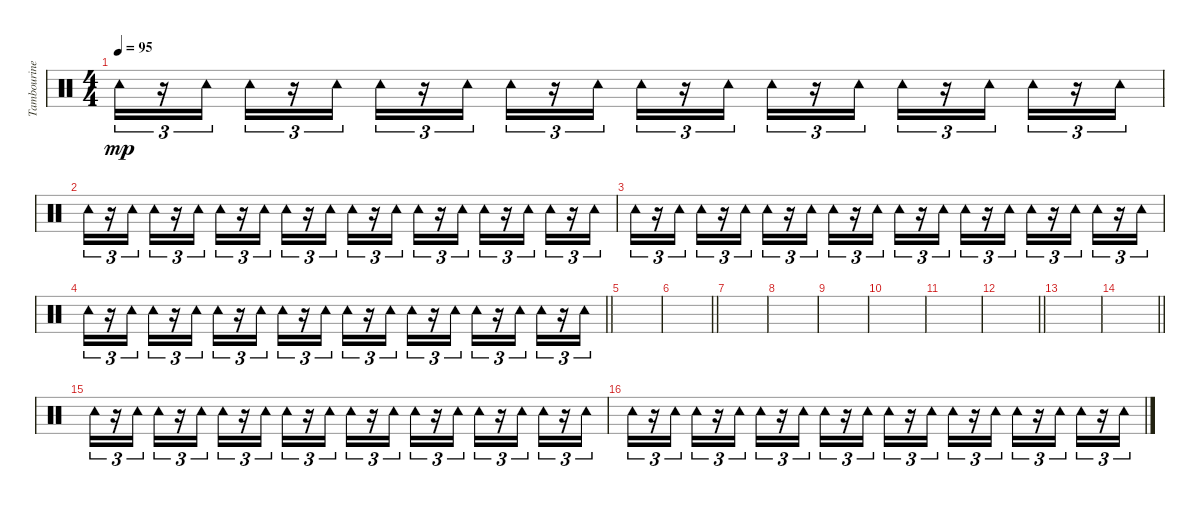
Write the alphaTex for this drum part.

\track ("Tambourine" "Tambourine") {instrument percussion}
\staff {score}
\articulation defaults
\ts (4 4)
\tempo 95
\clef neutral
\ks c "Tambourine (hit)".16{tu (3 2) dy mp}
r.16{tu (3 2)} "Tambourine (hit)".16{tu (3 2)} "Tambourine (hit)".16{tu (3 2)} r.16{tu (3 2)} "Tambourine (hit)".16{tu (3 2)} "Tambourine (hit)".16{tu (3 2)} r.16{tu (3 2)} "Tambourine (hit)".16{tu (3 2)} "Tambourine (hit)".16{tu (3 2)} r.16{tu (3 2)} "Tambourine (hit)".16{tu (3 2)} "Tambourine (hit)".16{tu (3 2)} r.16{tu (3 2)} "Tambourine (hit)".16{tu (3 2)} "Tambourine (hit)".16{tu (3 2)} r.16{tu (3 2)} "Tambourine (hit)".16{tu (3 2)} "Tambourine (hit)".16{tu (3 2)} r.16{tu (3 2)} "Tambourine (hit)".16{tu (3 2)} "Tambourine (hit)".16{tu (3 2)} r.16{tu (3 2)} "Tambourine (hit)".16{tu (3 2)} |
"Tambourine (hit)".16{tu (3 2)} r.16{tu (3 2)} "Tambourine (hit)".16{tu (3 2)} "Tambourine (hit)".16{tu (3 2)} r.16{tu (3 2)} "Tambourine (hit)".16{tu (3 2)} "Tambourine (hit)".16{tu (3 2)} r.16{tu (3 2)} "Tambourine (hit)".16{tu (3 2)} "Tambourine (hit)".16{tu (3 2)} r.16{tu (3 2)} "Tambourine (hit)".16{tu (3 2)} "Tambourine (hit)".16{tu (3 2)} r.16{tu (3 2)} "Tambourine (hit)".16{tu (3 2)} "Tambourine (hit)".16{tu (3 2)} r.16{tu (3 2)} "Tambourine (hit)".16{tu (3 2)} "Tambourine (hit)".16{tu (3 2)} r.16{tu (3 2)} "Tambourine (hit)".16{tu (3 2)} "Tambourine (hit)".16{tu (3 2)} r.16{tu (3 2)} "Tambourine (hit)".16{tu (3 2)} |
"Tambourine (hit)".16{tu (3 2)} r.16{tu (3 2)} "Tambourine (hit)".16{tu (3 2)} "Tambourine (hit)".16{tu (3 2)} r.16{tu (3 2)} "Tambourine (hit)".16{tu (3 2)} "Tambourine (hit)".16{tu (3 2)} r.16{tu (3 2)} "Tambourine (hit)".16{tu (3 2)} "Tambourine (hit)".16{tu (3 2)} r.16{tu (3 2)} "Tambourine (hit)".16{tu (3 2)} "Tambourine (hit)".16{tu (3 2)} r.16{tu (3 2)} "Tambourine (hit)".16{tu (3 2)} "Tambourine (hit)".16{tu (3 2)} r.16{tu (3 2)} "Tambourine (hit)".16{tu (3 2)} "Tambourine (hit)".16{tu (3 2)} r.16{tu (3 2)} "Tambourine (hit)".16{tu (3 2)} "Tambourine (hit)".16{tu (3 2)} r.16{tu (3 2)} "Tambourine (hit)".16{tu (3 2)} |
\barLineRight lightlight "Tambourine (hit)".16{tu (3 2)}
r.16{tu (3 2)} "Tambourine (hit)".16{tu (3 2)} "Tambourine (hit)".16{tu (3 2)} r.16{tu (3 2)} "Tambourine (hit)".16{tu (3 2)} "Tambourine (hit)".16{tu (3 2)} r.16{tu (3 2)} "Tambourine (hit)".16{tu (3 2)} "Tambourine (hit)".16{tu (3 2)} r.16{tu (3 2)} "Tambourine (hit)".16{tu (3 2)} "Tambourine (hit)".16{tu (3 2)} r.16{tu (3 2)} "Tambourine (hit)".16{tu (3 2)} "Tambourine (hit)".16{tu (3 2)} r.16{tu (3 2)} "Tambourine (hit)".16{tu (3 2)} "Tambourine (hit)".16{tu (3 2)} r.16{tu (3 2)} "Tambourine (hit)".16{tu (3 2)} "Tambourine (hit)".16{tu (3 2)} r.16{tu (3 2)} "Tambourine (hit)".16{tu (3 2)} |
|
\barLineRight lightlight
|
|
|
|
|
|
\barLineRight lightlight
|
|
\barLineRight lightlight
|
"Tambourine (hit)".16{tu (3 2)} r.16{tu (3 2)} "Tambourine (hit)".16{tu (3 2)} "Tambourine (hit)".16{tu (3 2)} r.16{tu (3 2)} "Tambourine (hit)".16{tu (3 2)} "Tambourine (hit)".16{tu (3 2)} r.16{tu (3 2)} "Tambourine (hit)".16{tu (3 2)} "Tambourine (hit)".16{tu (3 2)} r.16{tu (3 2)} "Tambourine (hit)".16{tu (3 2)} "Tambourine (hit)".16{tu (3 2)} r.16{tu (3 2)} "Tambourine (hit)".16{tu (3 2)} "Tambourine (hit)".16{tu (3 2)} r.16{tu (3 2)} "Tambourine (hit)".16{tu (3 2)} "Tambourine (hit)".16{tu (3 2)} r.16{tu (3 2)} "Tambourine (hit)".16{tu (3 2)} "Tambourine (hit)".16{tu (3 2)} r.16{tu (3 2)} "Tambourine (hit)".16{tu (3 2)} |
"Tambourine (hit)".16{tu (3 2)} r.16{tu (3 2)} "Tambourine (hit)".16{tu (3 2)} "Tambourine (hit)".16{tu (3 2)} r.16{tu (3 2)} "Tambourine (hit)".16{tu (3 2)} "Tambourine (hit)".16{tu (3 2)} r.16{tu (3 2)} "Tambourine (hit)".16{tu (3 2)} "Tambourine (hit)".16{tu (3 2)} r.16{tu (3 2)} "Tambourine (hit)".16{tu (3 2)} "Tambourine (hit)".16{tu (3 2)} r.16{tu (3 2)} "Tambourine (hit)".16{tu (3 2)} "Tambourine (hit)".16{tu (3 2)} r.16{tu (3 2)} "Tambourine (hit)".16{tu (3 2)} "Tambourine (hit)".16{tu (3 2)} r.16{tu (3 2)} "Tambourine (hit)".16{tu (3 2)} "Tambourine (hit)".16{tu (3 2)} r.16{tu (3 2)} "Tambourine (hit)".16{tu (3 2)}
